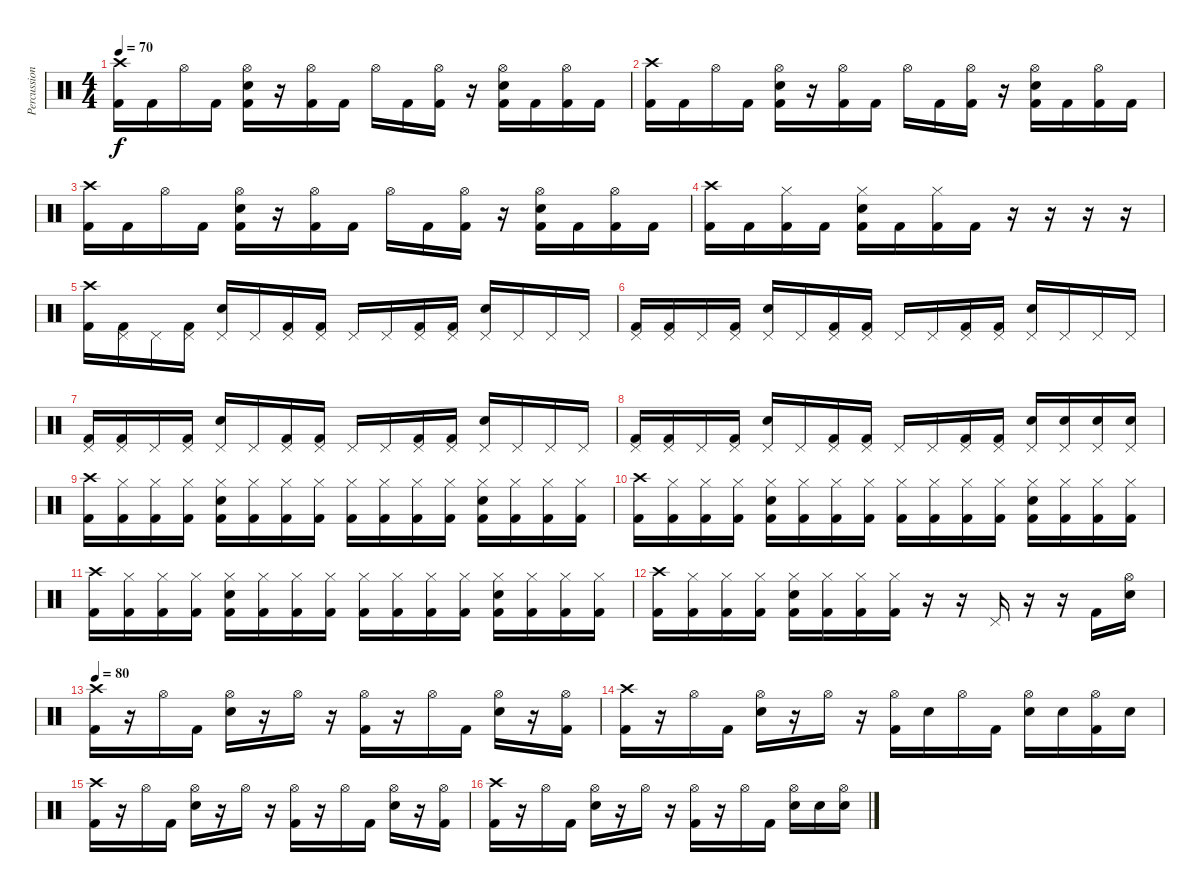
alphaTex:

\track ("Percussion" "Percussion") {instrument percussion}
\staff {score}
\articulation defaults
\ts (4 4)
\tempo 70
\clef neutral
\ks c
("Crash high (hit)" "Kick (hit) 2").16{dy f} "Kick (hit) 2".16 "Hi-Hat (open)".16 "Kick (hit) 2".16 ("Hi-Hat (open)" "Kick (hit) 2" "Snare (hit) 2").16 r.16 ("Hi-Hat (open)" "Kick (hit) 2").16 "Kick (hit) 2".16 "Hi-Hat (open)".16 "Kick (hit) 2".16 ("Hi-Hat (open)" "Kick (hit) 2").16 r.16 ("Hi-Hat (open)" "Kick (hit) 2" "Snare (hit) 2").16 "Kick (hit) 2".16 ("Hi-Hat (open)" "Kick (hit) 2").16 "Kick (hit) 2".16 |
("Crash high (hit)" "Kick (hit) 2").16 "Kick (hit) 2".16 "Hi-Hat (open)".16 "Kick (hit) 2".16 ("Hi-Hat (open)" "Kick (hit) 2" "Snare (hit) 2").16 r.16 ("Hi-Hat (open)" "Kick (hit) 2").16 "Kick (hit) 2".16 "Hi-Hat (open)".16 "Kick (hit) 2".16 ("Hi-Hat (open)" "Kick (hit) 2").16 r.16 ("Hi-Hat (open)" "Kick (hit) 2" "Snare (hit) 2").16 "Kick (hit) 2".16 ("Hi-Hat (open)" "Kick (hit) 2").16 "Kick (hit) 2".16 |
("Crash high (hit)" "Kick (hit) 2").16 "Kick (hit) 2".16 "Hi-Hat (open)".16 "Kick (hit) 2".16 ("Hi-Hat (open)" "Kick (hit) 2" "Snare (hit) 2").16 r.16 ("Hi-Hat (open)" "Kick (hit) 2").16 "Kick (hit) 2".16 "Hi-Hat (open)".16 "Kick (hit) 2".16 ("Hi-Hat (open)" "Kick (hit) 2").16 r.16 ("Hi-Hat (open)" "Kick (hit) 2" "Snare (hit) 2").16 "Kick (hit) 2".16 ("Hi-Hat (open)" "Kick (hit) 2").16 "Kick (hit) 2".16 |
("Crash high (hit)" "Kick (hit) 2").16 "Kick (hit) 2".16 ("Hi-Hat (closed)" "Kick (hit) 2").16 "Kick (hit) 2".16 ("Hi-Hat (closed)" "Kick (hit) 2" "Snare (hit) 2").16 "Kick (hit) 2".16 ("Hi-Hat (closed)" "Kick (hit) 2").16 "Kick (hit) 2".16 r.16 r.16 r.16 r.16 |
("Crash high (hit)" "Kick (hit) 2").16 ("Pedal Hi-Hat (hit)" "Kick (hit) 2").16 "Pedal Hi-Hat (hit)".16 ("Pedal Hi-Hat (hit)" "Kick (hit) 2").16 ("Pedal Hi-Hat (hit)" "Snare (hit) 2").16 "Pedal Hi-Hat (hit)".16 ("Pedal Hi-Hat (hit)" "Kick (hit) 2").16 ("Pedal Hi-Hat (hit)" "Kick (hit) 2").16 "Pedal Hi-Hat (hit)".16 "Pedal Hi-Hat (hit)".16 ("Pedal Hi-Hat (hit)" "Kick (hit) 2").16 ("Pedal Hi-Hat (hit)" "Kick (hit) 2").16 ("Pedal Hi-Hat (hit)" "Snare (hit) 2").16 "Pedal Hi-Hat (hit)".16 "Pedal Hi-Hat (hit)".16 "Pedal Hi-Hat (hit)".16 |
("Pedal Hi-Hat (hit)" "Kick (hit) 2").16 ("Pedal Hi-Hat (hit)" "Kick (hit) 2").16 "Pedal Hi-Hat (hit)".16 ("Pedal Hi-Hat (hit)" "Kick (hit) 2").16 ("Pedal Hi-Hat (hit)" "Snare (hit) 2").16 "Pedal Hi-Hat (hit)".16 ("Pedal Hi-Hat (hit)" "Kick (hit) 2").16 ("Pedal Hi-Hat (hit)" "Kick (hit) 2").16 "Pedal Hi-Hat (hit)".16 "Pedal Hi-Hat (hit)".16 ("Pedal Hi-Hat (hit)" "Kick (hit) 2").16 ("Pedal Hi-Hat (hit)" "Kick (hit) 2").16 ("Pedal Hi-Hat (hit)" "Snare (hit) 2").16 "Pedal Hi-Hat (hit)".16 "Pedal Hi-Hat (hit)".16 "Pedal Hi-Hat (hit)".16 |
("Pedal Hi-Hat (hit)" "Kick (hit) 2").16 ("Pedal Hi-Hat (hit)" "Kick (hit) 2").16 "Pedal Hi-Hat (hit)".16 ("Pedal Hi-Hat (hit)" "Kick (hit) 2").16 ("Pedal Hi-Hat (hit)" "Snare (hit) 2").16 "Pedal Hi-Hat (hit)".16 ("Pedal Hi-Hat (hit)" "Kick (hit) 2").16 ("Pedal Hi-Hat (hit)" "Kick (hit) 2").16 "Pedal Hi-Hat (hit)".16 "Pedal Hi-Hat (hit)".16 ("Pedal Hi-Hat (hit)" "Kick (hit) 2").16 ("Pedal Hi-Hat (hit)" "Kick (hit) 2").16 ("Pedal Hi-Hat (hit)" "Snare (hit) 2").16 "Pedal Hi-Hat (hit)".16 "Pedal Hi-Hat (hit)".16 "Pedal Hi-Hat (hit)".16 |
("Pedal Hi-Hat (hit)" "Kick (hit) 2").16 ("Pedal Hi-Hat (hit)" "Kick (hit) 2").16 "Pedal Hi-Hat (hit)".16 ("Pedal Hi-Hat (hit)" "Kick (hit) 2").16 ("Pedal Hi-Hat (hit)" "Snare (hit) 2").16 "Pedal Hi-Hat (hit)".16 ("Pedal Hi-Hat (hit)" "Kick (hit) 2").16 ("Pedal Hi-Hat (hit)" "Kick (hit) 2").16 "Pedal Hi-Hat (hit)".16 "Pedal Hi-Hat (hit)".16 ("Pedal Hi-Hat (hit)" "Kick (hit) 2").16 ("Pedal Hi-Hat (hit)" "Kick (hit) 2").16 ("Pedal Hi-Hat (hit)" "Snare (hit) 2").16 ("Pedal Hi-Hat (hit)" "Snare (hit) 2").16 ("Pedal Hi-Hat (hit)" "Snare (hit) 2").16 ("Pedal Hi-Hat (hit)" "Snare (hit) 2").16 |
("Crash high (hit)" "Kick (hit) 2").16 ("Hi-Hat (closed)" "Kick (hit) 2").16 ("Hi-Hat (closed)" "Kick (hit) 2").16 ("Hi-Hat (closed)" "Kick (hit) 2").16 ("Hi-Hat (closed)" "Kick (hit) 2" "Snare (hit) 2").16 ("Hi-Hat (closed)" "Kick (hit) 2").16 ("Hi-Hat (closed)" "Kick (hit) 2").16 ("Hi-Hat (closed)" "Kick (hit) 2").16 ("Hi-Hat (closed)" "Kick (hit) 2").16 ("Hi-Hat (closed)" "Kick (hit) 2").16 ("Hi-Hat (closed)" "Kick (hit) 2").16 ("Hi-Hat (closed)" "Kick (hit) 2").16 ("Hi-Hat (closed)" "Kick (hit) 2" "Snare (hit) 2").16 ("Hi-Hat (closed)" "Kick (hit) 2").16 ("Hi-Hat (closed)" "Kick (hit) 2").16 ("Hi-Hat (closed)" "Kick (hit) 2").16 |
("Crash high (hit)" "Kick (hit) 2").16 ("Hi-Hat (closed)" "Kick (hit) 2").16 ("Hi-Hat (closed)" "Kick (hit) 2").16 ("Hi-Hat (closed)" "Kick (hit) 2").16 ("Hi-Hat (closed)" "Kick (hit) 2" "Snare (hit) 2").16 ("Hi-Hat (closed)" "Kick (hit) 2").16 ("Hi-Hat (closed)" "Kick (hit) 2").16 ("Hi-Hat (closed)" "Kick (hit) 2").16 ("Hi-Hat (closed)" "Kick (hit) 2").16 ("Hi-Hat (closed)" "Kick (hit) 2").16 ("Hi-Hat (closed)" "Kick (hit) 2").16 ("Hi-Hat (closed)" "Kick (hit) 2").16 ("Hi-Hat (closed)" "Kick (hit) 2" "Snare (hit) 2").16 ("Hi-Hat (closed)" "Kick (hit) 2").16 ("Hi-Hat (closed)" "Kick (hit) 2").16 ("Hi-Hat (closed)" "Kick (hit) 2").16 |
("Crash high (hit)" "Kick (hit) 2").16 ("Hi-Hat (closed)" "Kick (hit) 2").16 ("Hi-Hat (closed)" "Kick (hit) 2").16 ("Hi-Hat (closed)" "Kick (hit) 2").16 ("Hi-Hat (closed)" "Kick (hit) 2" "Snare (hit) 2").16 ("Hi-Hat (closed)" "Kick (hit) 2").16 ("Hi-Hat (closed)" "Kick (hit) 2").16 ("Hi-Hat (closed)" "Kick (hit) 2").16 ("Hi-Hat (closed)" "Kick (hit) 2").16 ("Hi-Hat (closed)" "Kick (hit) 2").16 ("Hi-Hat (closed)" "Kick (hit) 2").16 ("Hi-Hat (closed)" "Kick (hit) 2").16 ("Hi-Hat (closed)" "Kick (hit) 2" "Snare (hit) 2").16 ("Hi-Hat (closed)" "Kick (hit) 2").16 ("Hi-Hat (closed)" "Kick (hit) 2").16 ("Hi-Hat (closed)" "Kick (hit) 2").16 |
("Crash high (hit)" "Kick (hit) 2").16 ("Hi-Hat (closed)" "Kick (hit) 2").16 ("Hi-Hat (closed)" "Kick (hit) 2").16 ("Hi-Hat (closed)" "Kick (hit) 2").16 ("Hi-Hat (closed)" "Kick (hit) 2" "Snare (hit) 2").16 ("Hi-Hat (closed)" "Kick (hit) 2").16 ("Hi-Hat (closed)" "Kick (hit) 2").16 ("Hi-Hat (closed)" "Kick (hit) 2").16 r.16 r.16 "Pedal Hi-Hat (hit)".16 r.16 r.16 "Kick (hit) 2".16 ("Snare (hit) 2" "Hi-Hat (open)").16 |
\tempo 80
("Crash high (hit)" "Kick (hit) 2").16 r.16 "Hi-Hat (open)".16 "Kick (hit) 2".16 ("Hi-Hat (open)" "Snare (hit) 2").16 r.16 "Hi-Hat (open)".16 r.16 ("Hi-Hat (open)" "Kick (hit) 2").16 r.16 "Hi-Hat (open)".16 "Kick (hit) 2".16 ("Hi-Hat (open)" "Snare (hit) 2").16 r.16 ("Hi-Hat (open)" "Kick (hit) 2").16 |
("Crash high (hit)" "Kick (hit) 2").16 r.16 "Hi-Hat (open)".16 "Kick (hit) 2".16 ("Hi-Hat (open)" "Snare (hit) 2").16 r.16 "Hi-Hat (open)".16 r.16 ("Hi-Hat (open)" "Kick (hit) 2").16 "Snare (hit) 2".16 "Hi-Hat (open)".16 "Kick (hit) 2".16 ("Hi-Hat (open)" "Snare (hit) 2").16 "Snare (hit) 2".16 ("Hi-Hat (open)" "Kick (hit) 2").16 "Snare (hit) 2".16 |
("Crash high (hit)" "Kick (hit) 2").16 r.16 "Hi-Hat (open)".16 "Kick (hit) 2".16 ("Hi-Hat (open)" "Snare (hit) 2").16 r.16 "Hi-Hat (open)".16 r.16 ("Hi-Hat (open)" "Kick (hit) 2").16 r.16 "Hi-Hat (open)".16 "Kick (hit) 2".16 ("Hi-Hat (open)" "Snare (hit) 2").16 r.16 ("Hi-Hat (open)" "Kick (hit) 2").16 |
("Crash high (hit)" "Kick (hit) 2").16 r.16 "Hi-Hat (open)".16 "Kick (hit) 2".16 ("Hi-Hat (open)" "Snare (hit) 2").16 r.16 "Hi-Hat (open)".16 r.16 ("Hi-Hat (open)" "Kick (hit) 2").16 r.16 "Hi-Hat (open)".16 "Kick (hit) 2".16 ("Hi-Hat (open)" "Snare (hit) 2").16 "Snare (hit) 2".16 ("Hi-Hat (open)" "Snare (hit) 2").16
